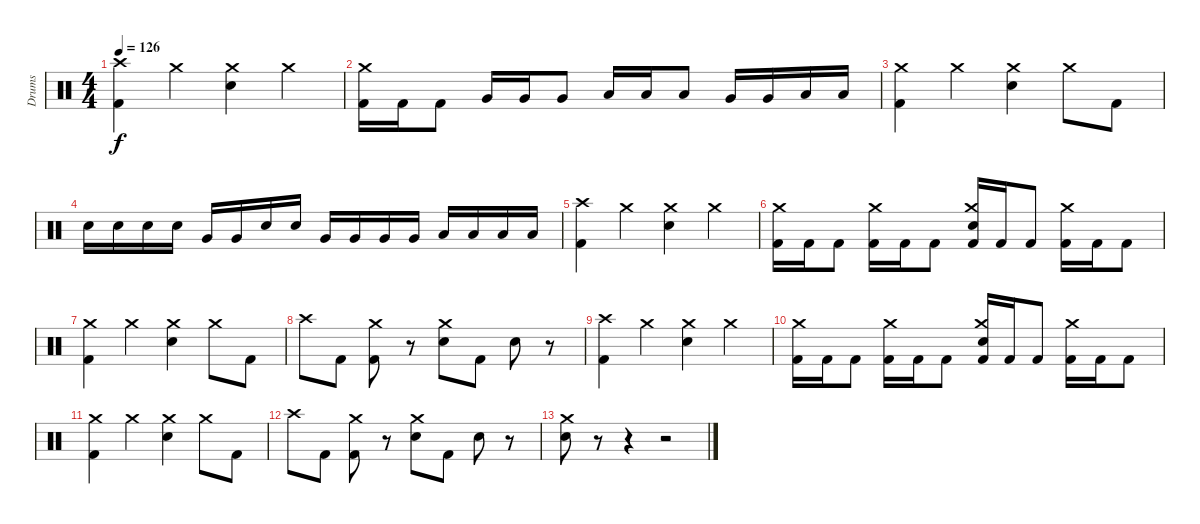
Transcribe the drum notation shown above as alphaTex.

\track ("Drums" "Drums") {instrument percussion}
\staff
\articulation defaults
\ts (4 4)
\tempo 126
\clef neutral
\ks c
("Crash high (hit)" "Kick (hit) 2").4{dy f} "Crash medium (hit)".4 ("Crash medium (hit)" "Electric Snare (hit)").4 "Crash medium (hit)".4 |
("Crash medium (hit)" "Kick (hit) 2").16 "Kick (hit) 2".16 "Kick (hit) 2".8 "Very Low Tom (hit)".16 "Very Low Tom (hit)".16 "Very Low Tom (hit)".8 "Low Floor Tom (hit)".16 "Low Floor Tom (hit)".16 "Low Floor Tom (hit)".8 "Very Low Tom (hit)".16 "Very Low Tom (hit)".16 "Low Floor Tom (hit)".16 "Low Floor Tom (hit)".16 |
("Crash medium (hit)" "Kick (hit) 2").4 "Crash medium (hit)".4 ("Crash medium (hit)" "Electric Snare (hit)").4 "Crash medium (hit)".8 "Kick (hit) 2".8 |
"Electric Snare (hit)".16 "Electric Snare (hit)".16 "Electric Snare (hit)".16 "Electric Snare (hit)".16 "Very Low Tom (hit)".16 "Very Low Tom (hit)".16 "Electric Snare (hit)".16 "Electric Snare (hit)".16 "Very Low Tom (hit)".16 "Very Low Tom (hit)".16 "Very Low Tom (hit)".16 "Very Low Tom (hit)".16 "Low Floor Tom (hit)".16 "Low Floor Tom (hit)".16 "Low Floor Tom (hit)".16 "Low Floor Tom (hit)".16 |
("Crash high (hit)" "Kick (hit) 2").4 "Crash medium (hit)".4 ("Crash medium (hit)" "Electric Snare (hit)").4 "Crash medium (hit)".4 |
("Crash medium (hit)" "Kick (hit) 2").16 "Kick (hit) 2".16 "Kick (hit) 2".8 ("Crash medium (hit)" "Kick (hit) 2").16 "Kick (hit) 2".16 "Kick (hit) 2".8 ("Crash medium (hit)" "Electric Snare (hit)" "Kick (hit) 2").16 "Kick (hit) 2".16 "Kick (hit) 2".8 ("Crash medium (hit)" "Kick (hit) 2").16 "Kick (hit) 2".16 "Kick (hit) 2".8 |
("Crash medium (hit)" "Kick (hit) 2").4 "Crash medium (hit)".4 ("Crash medium (hit)" "Electric Snare (hit)").4 "Crash medium (hit)".8 "Kick (hit) 2".8 |
"Crash high (hit)".8 "Kick (hit) 2".8 ("Crash medium (hit)" "Kick (hit) 2").8 r.8 ("Crash medium (hit)" "Electric Snare (hit)").8 "Kick (hit) 2".8 "Electric Snare (hit)".8 r.8 |
("Crash high (hit)" "Kick (hit) 2").4 "Crash medium (hit)".4 ("Crash medium (hit)" "Electric Snare (hit)").4 "Crash medium (hit)".4 |
("Crash medium (hit)" "Kick (hit) 2").16 "Kick (hit) 2".16 "Kick (hit) 2".8 ("Crash medium (hit)" "Kick (hit) 2").16 "Kick (hit) 2".16 "Kick (hit) 2".8 ("Crash medium (hit)" "Electric Snare (hit)" "Kick (hit) 2").16 "Kick (hit) 2".16 "Kick (hit) 2".8 ("Crash medium (hit)" "Kick (hit) 2").16 "Kick (hit) 2".16 "Kick (hit) 2".8 |
("Crash medium (hit)" "Kick (hit) 2").4 "Crash medium (hit)".4 ("Crash medium (hit)" "Electric Snare (hit)").4 "Crash medium (hit)".8 "Kick (hit) 2".8 |
"Crash high (hit)".8 "Kick (hit) 2".8 ("Crash medium (hit)" "Kick (hit) 2").8 r.8 ("Crash medium (hit)" "Electric Snare (hit)").8 "Kick (hit) 2".8 "Electric Snare (hit)".8 r.8 |
("Crash medium (hit)" "Electric Snare (hit)").8 r.8 r.4 r.2
